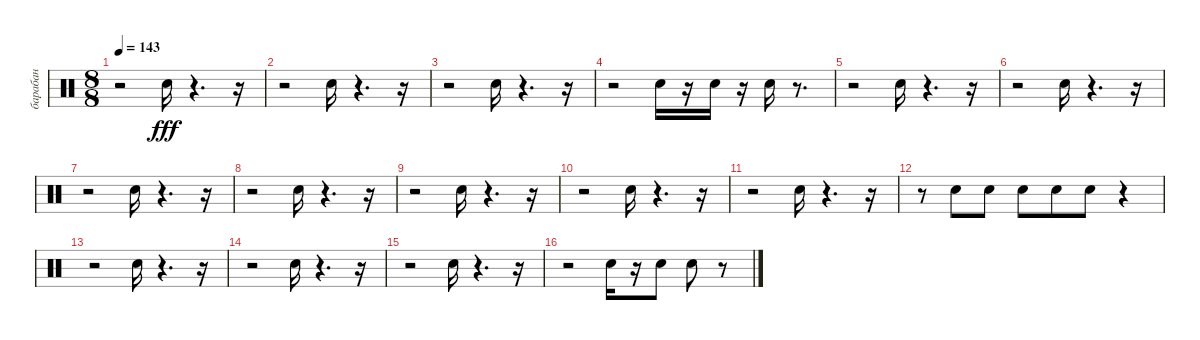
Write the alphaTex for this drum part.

\track ("барабан" "барабан") {instrument percussion}
\staff {score}
\articulation defaults
\ts (8 8)
\tempo 143
\clef neutral
\ks c
r.2{dy fff} "Snare (hit) 2".16 r.4{d} r.16 |
r.2 "Snare (hit) 2".16 r.4{d} r.16 |
r.2 "Snare (hit) 2".16 r.4{d} r.16 |
r.2 "Snare (hit) 2".16 r.16 "Snare (hit) 2".16 r.16 "Snare (hit) 2".16 r.8{d} |
r.2 "Snare (hit) 2".16 r.4{d} r.16 |
r.2 "Snare (hit) 2".16 r.4{d} r.16 |
r.2 "Snare (hit) 2".16 r.4{d} r.16 |
r.2 "Snare (hit) 2".16 r.4{d} r.16 |
r.2 "Snare (hit) 2".16 r.4{d} r.16 |
r.2 "Snare (hit) 2".16 r.4{d} r.16 |
r.2 "Snare (hit) 2".16 r.4{d} r.16 |
r.8 "Snare (hit) 2".8 "Snare (hit) 2".8 "Snare (hit) 2".8 "Snare (hit) 2".8 "Snare (hit) 2".8 r.4 |
r.2 "Snare (hit) 2".16 r.4{d} r.16 |
r.2 "Snare (hit) 2".16 r.4{d} r.16 |
r.2 "Snare (hit) 2".16 r.4{d} r.16 |
r.2 "Snare (hit) 2".16 r.16 "Snare (hit) 2".8 "Snare (hit) 2".8 r.8
